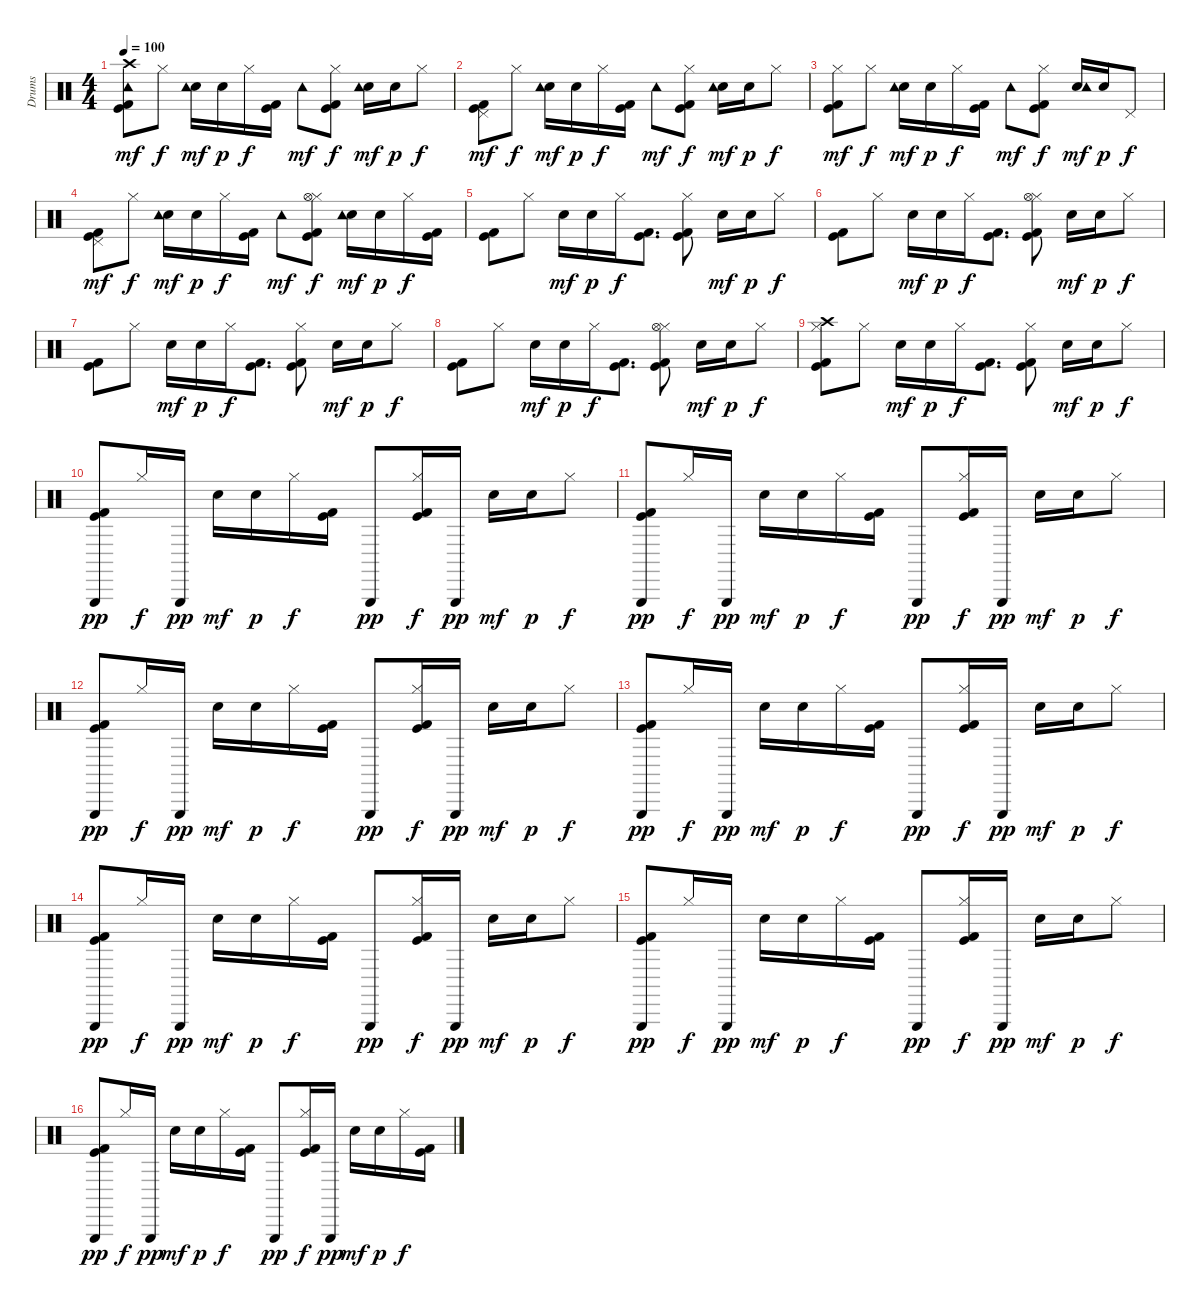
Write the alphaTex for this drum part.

\track ("Drums" "Drums") {instrument percussion}
\staff {score}
\articulation defaults
\ts (4 4)
\tempo 100
\clef neutral
\ks c
("Kick (hit)" "Kick (hit) 2" "Crash high (hit)" "Tambourine (hit)").8{dy mf} "Hi-Hat (closed)".8{dy f} ("Hand Clap (hit)" "Tambourine (hit)").16{dy mf} "Hand Clap (hit)".16{dy p} "Hi-Hat (closed)".16{dy f} ("Kick (hit)" "Kick (hit) 2").16 "Tambourine (hit)".8{dy mf} ("Kick (hit)" "Kick (hit) 2" "Hi-Hat (closed)").8{dy f} ("Hand Clap (hit)" "Tambourine (hit)").16{dy mf} "Hand Clap (hit)".16{dy p} "Hi-Hat (closed)".8{dy f} |
("Kick (hit)" "Kick (hit) 2" "Pedal Hi-Hat (hit)").8{dy mf} "Hi-Hat (closed)".8{dy f} ("Hand Clap (hit)" "Tambourine (hit)").16{dy mf} "Hand Clap (hit)".16{dy p} "Hi-Hat (closed)".16{dy f} ("Kick (hit)" "Kick (hit) 2").16 "Tambourine (hit)".8{dy mf} ("Kick (hit)" "Kick (hit) 2" "Hi-Hat (closed)").8{dy f} ("Hand Clap (hit)" "Tambourine (hit)").16{dy mf} "Hand Clap (hit)".16{dy p} "Hi-Hat (closed)".8{dy f} |
("Kick (hit)" "Kick (hit) 2" "Hi-Hat (closed)").8{dy mf} "Hi-Hat (closed)".8{dy f} ("Hand Clap (hit)" "Tambourine (hit)").16{dy mf} "Hand Clap (hit)".16{dy p} "Hi-Hat (closed)".16{dy f} ("Kick (hit)" "Kick (hit) 2").16 "Tambourine (hit)".8{dy mf} ("Kick (hit)" "Kick (hit) 2" "Hi-Hat (closed)").8{dy f} ("Hand Clap (hit)" "Tambourine (hit)").16{dy mf} "Hand Clap (hit)".16{dy p} "Pedal Hi-Hat (hit)".8{dy f} |
("Kick (hit)" "Kick (hit) 2" "Pedal Hi-Hat (hit)").8{dy mf} "Hi-Hat (closed)".8{dy f} ("Hand Clap (hit)" "Tambourine (hit)").16{dy mf} "Hand Clap (hit)".16{dy p} "Hi-Hat (closed)".16{dy f} ("Kick (hit)" "Kick (hit) 2").16 "Tambourine (hit)".8{dy mf} ("Kick (hit)" "Kick (hit) 2" "Hi-Hat (closed)" "Hi-Hat (open)").8{dy f} ("Hand Clap (hit)" "Tambourine (hit)").16{dy mf} "Hand Clap (hit)".16{dy p} "Hi-Hat (closed)".16{dy f} ("Kick (hit) 2" "Kick (hit)").16 |
("Kick (hit)" "Kick (hit) 2").8 "Hi-Hat (closed)".8 "Hand Clap (hit)".16{dy mf} "Hand Clap (hit)".16{dy p} "Hi-Hat (closed)".16{dy f} ("Kick (hit)" "Kick (hit) 2").8{d} ("Kick (hit)" "Kick (hit) 2" "Hi-Hat (closed)").8 "Hand Clap (hit)".16{dy mf} "Hand Clap (hit)".16{dy p} "Hi-Hat (closed)".8{dy f} |
("Kick (hit)" "Kick (hit) 2").8 "Hi-Hat (closed)".8 "Hand Clap (hit)".16{dy mf} "Hand Clap (hit)".16{dy p} "Hi-Hat (closed)".16{dy f} ("Kick (hit)" "Kick (hit) 2").8{d} ("Kick (hit)" "Kick (hit) 2" "Hi-Hat (closed)" "Hi-Hat (open)").8 "Hand Clap (hit)".16{dy mf} "Hand Clap (hit)".16{dy p} "Hi-Hat (closed)".8{dy f} |
("Kick (hit)" "Kick (hit) 2").8 "Hi-Hat (closed)".8 "Hand Clap (hit)".16{dy mf} "Hand Clap (hit)".16{dy p} "Hi-Hat (closed)".16{dy f} ("Kick (hit)" "Kick (hit) 2").8{d} ("Kick (hit)" "Kick (hit) 2" "Hi-Hat (closed)").8 "Hand Clap (hit)".16{dy mf} "Hand Clap (hit)".16{dy p} "Hi-Hat (closed)".8{dy f} |
("Kick (hit)" "Kick (hit) 2").8 "Hi-Hat (closed)".8 "Hand Clap (hit)".16{dy mf} "Hand Clap (hit)".16{dy p} "Hi-Hat (closed)".16{dy f} ("Kick (hit)" "Kick (hit) 2").8{d} ("Kick (hit)" "Kick (hit) 2" "Hi-Hat (closed)" "Hi-Hat (open)").8 "Hand Clap (hit)".16{dy mf} "Hand Clap (hit)".16{dy p} "Hi-Hat (closed)".8{dy f} |
("Kick (hit)" "Kick (hit) 2" "Crash high (hit)" "Hi-Hat (closed)").8 "Hi-Hat (closed)".8 "Hand Clap (hit)".16{dy mf} "Hand Clap (hit)".16{dy p} "Hi-Hat (closed)".16{dy f} ("Kick (hit)" "Kick (hit) 2").8{d} ("Kick (hit)" "Kick (hit) 2" "Hi-Hat (closed)").8 "Hand Clap (hit)".16{dy mf} "Hand Clap (hit)".16{dy p} "Hi-Hat (closed)".8{dy f} |
("Kick (hit)" "Kick (hit) 2" "Triangle (hit)").8{dy pp} "Hi-Hat (closed)".16{dy f} "Triangle (hit)".16{dy pp} "Hand Clap (hit)".16{dy mf} "Hand Clap (hit)".16{dy p} "Hi-Hat (closed)".16{dy f} ("Kick (hit)" "Kick (hit) 2").16 "Triangle (hit)".8{dy pp} ("Kick (hit)" "Kick (hit) 2" "Hi-Hat (closed)").16{dy f} "Triangle (hit)".16{dy pp} "Hand Clap (hit)".16{dy mf} "Hand Clap (hit)".16{dy p} "Hi-Hat (closed)".8{dy f} |
("Kick (hit)" "Kick (hit) 2" "Triangle (hit)").8{dy pp} "Hi-Hat (closed)".16{dy f} "Triangle (hit)".16{dy pp} "Hand Clap (hit)".16{dy mf} "Hand Clap (hit)".16{dy p} "Hi-Hat (closed)".16{dy f} ("Kick (hit)" "Kick (hit) 2").16 "Triangle (hit)".8{dy pp} ("Kick (hit)" "Kick (hit) 2" "Hi-Hat (closed)").16{dy f} "Triangle (hit)".16{dy pp} "Hand Clap (hit)".16{dy mf} "Hand Clap (hit)".16{dy p} "Hi-Hat (closed)".8{dy f} |
("Kick (hit)" "Kick (hit) 2" "Triangle (hit)").8{dy pp} "Hi-Hat (closed)".16{dy f} "Triangle (hit)".16{dy pp} "Hand Clap (hit)".16{dy mf} "Hand Clap (hit)".16{dy p} "Hi-Hat (closed)".16{dy f} ("Kick (hit)" "Kick (hit) 2").16 "Triangle (hit)".8{dy pp} ("Kick (hit)" "Kick (hit) 2" "Hi-Hat (closed)").16{dy f} "Triangle (hit)".16{dy pp} "Hand Clap (hit)".16{dy mf} "Hand Clap (hit)".16{dy p} "Hi-Hat (closed)".8{dy f} |
("Kick (hit)" "Kick (hit) 2" "Triangle (hit)").8{dy pp} "Hi-Hat (closed)".16{dy f} "Triangle (hit)".16{dy pp} "Hand Clap (hit)".16{dy mf} "Hand Clap (hit)".16{dy p} "Hi-Hat (closed)".16{dy f} ("Kick (hit)" "Kick (hit) 2").16 "Triangle (hit)".8{dy pp} ("Kick (hit)" "Kick (hit) 2" "Hi-Hat (closed)").16{dy f} "Triangle (hit)".16{dy pp} "Hand Clap (hit)".16{dy mf} "Hand Clap (hit)".16{dy p} "Hi-Hat (closed)".8{dy f} |
("Kick (hit)" "Kick (hit) 2" "Triangle (hit)").8{dy pp} "Hi-Hat (closed)".16{dy f} "Triangle (hit)".16{dy pp} "Hand Clap (hit)".16{dy mf} "Hand Clap (hit)".16{dy p} "Hi-Hat (closed)".16{dy f} ("Kick (hit)" "Kick (hit) 2").16 "Triangle (hit)".8{dy pp} ("Kick (hit)" "Kick (hit) 2" "Hi-Hat (closed)").16{dy f} "Triangle (hit)".16{dy pp} "Hand Clap (hit)".16{dy mf} "Hand Clap (hit)".16{dy p} "Hi-Hat (closed)".8{dy f} |
("Kick (hit)" "Kick (hit) 2" "Triangle (hit)").8{dy pp} "Hi-Hat (closed)".16{dy f} "Triangle (hit)".16{dy pp} "Hand Clap (hit)".16{dy mf} "Hand Clap (hit)".16{dy p} "Hi-Hat (closed)".16{dy f} ("Kick (hit)" "Kick (hit) 2").16 "Triangle (hit)".8{dy pp} ("Kick (hit)" "Kick (hit) 2" "Hi-Hat (closed)").16{dy f} "Triangle (hit)".16{dy pp} "Hand Clap (hit)".16{dy mf} "Hand Clap (hit)".16{dy p} "Hi-Hat (closed)".8{dy f} |
("Kick (hit)" "Kick (hit) 2" "Triangle (hit)").8{dy pp} "Hi-Hat (closed)".16{dy f} "Triangle (hit)".16{dy pp} "Hand Clap (hit)".16{dy mf} "Hand Clap (hit)".16{dy p} "Hi-Hat (closed)".16{dy f} ("Kick (hit)" "Kick (hit) 2").16 "Triangle (hit)".8{dy pp} ("Kick (hit)" "Kick (hit) 2" "Hi-Hat (closed)").16{dy f} "Triangle (hit)".16{dy pp} "Hand Clap (hit)".16{dy mf} "Hand Clap (hit)".16{dy p} "Hi-Hat (closed)".16{dy f} ("Kick (hit) 2" "Kick (hit)").16
